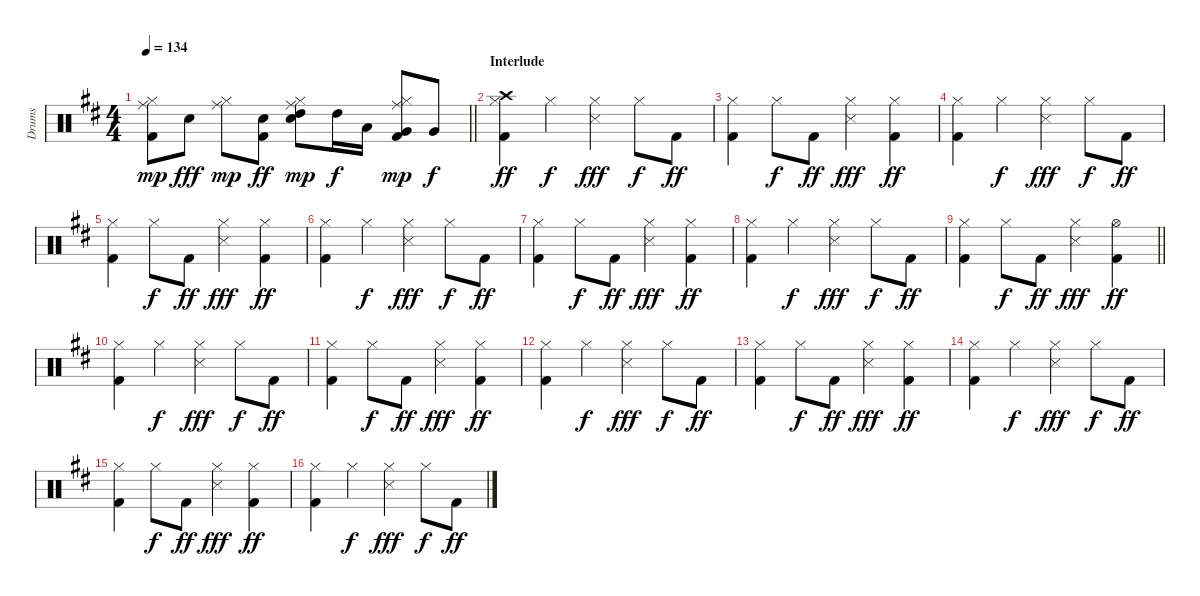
\track ("Drums" "Drums") {instrument percussion}
\staff {score}
\articulation defaults
\ts (4 4)
\tempo 134
\clef neutral
\barLineRight lightlight
\ks d
("Kick (hit) 2" "Hi-Hat (closed)" "Ride (middle)").8{dy mp} "Snare (hit) 2".8{dy fff} ("Hi-Hat (closed)" "Ride (middle)").8{dy mp} ("Kick (hit) 2" "Snare (hit) 2").8{dy ff} ("Snare (hit) 2" "Hi-Hat (closed)" "High Tom (hit)" "Ride (middle)").8{dy mp} "High Tom (hit)".16{dy f} "Low Tom (hit)".16 ("Kick (hit) 2" "Hi-Hat (closed)" "Very Low Tom (hit)" "Ride (middle)").8{dy mp} "Very Low Tom (hit)".8{dy f} |
\section ("" "Interlude")
("Kick (hit) 2" "Hi-Hat (closed)" "Crash high (hit)").4{dy ff} "Hi-Hat (closed)".4{dy f} ("Snare (side stick) 3" "Hi-Hat (closed)").4{dy fff} "Hi-Hat (closed)".8{dy f} "Kick (hit) 2".8{dy ff} |
("Kick (hit) 2" "Hi-Hat (closed)").4 "Hi-Hat (closed)".8{dy f} "Kick (hit) 2".8{dy ff} ("Snare (side stick) 3" "Hi-Hat (closed)").4{dy fff} ("Kick (hit) 2" "Hi-Hat (closed)").4{dy ff} |
("Kick (hit) 2" "Hi-Hat (closed)").4 "Hi-Hat (closed)".4{dy f} ("Snare (side stick) 3" "Hi-Hat (closed)").4{dy fff} "Hi-Hat (closed)".8{dy f} "Kick (hit) 2".8{dy ff} |
("Kick (hit) 2" "Hi-Hat (closed)").4 "Hi-Hat (closed)".8{dy f} "Kick (hit) 2".8{dy ff} ("Snare (side stick) 3" "Hi-Hat (closed)").4{dy fff} ("Kick (hit) 2" "Hi-Hat (closed)").4{dy ff} |
("Kick (hit) 2" "Hi-Hat (closed)").4 "Hi-Hat (closed)".4{dy f} ("Snare (side stick) 3" "Hi-Hat (closed)").4{dy fff} "Hi-Hat (closed)".8{dy f} "Kick (hit) 2".8{dy ff} |
("Kick (hit) 2" "Hi-Hat (closed)").4 "Hi-Hat (closed)".8{dy f} "Kick (hit) 2".8{dy ff} ("Snare (side stick) 3" "Hi-Hat (closed)").4{dy fff} ("Kick (hit) 2" "Hi-Hat (closed)").4{dy ff} |
("Kick (hit) 2" "Hi-Hat (closed)").4 "Hi-Hat (closed)".4{dy f} ("Snare (side stick) 3" "Hi-Hat (closed)").4{dy fff} "Hi-Hat (closed)".8{dy f} "Kick (hit) 2".8{dy ff} |
\barLineRight lightlight
("Kick (hit) 2" "Hi-Hat (closed)").4 "Hi-Hat (closed)".8{dy f} "Kick (hit) 2".8{dy ff} ("Snare (side stick) 3" "Hi-Hat (closed)").4{dy fff} ("Kick (hit) 2" "Hi-Hat (open)").4{dy ff} |
("Kick (hit) 2" "Hi-Hat (closed)").4 "Hi-Hat (closed)".4{dy f} ("Snare (side stick) 3" "Hi-Hat (closed)").4{dy fff} "Hi-Hat (closed)".8{dy f} "Kick (hit) 2".8{dy ff} |
("Kick (hit) 2" "Hi-Hat (closed)").4 "Hi-Hat (closed)".8{dy f} "Kick (hit) 2".8{dy ff} ("Snare (side stick) 3" "Hi-Hat (closed)").4{dy fff} ("Kick (hit) 2" "Hi-Hat (closed)").4{dy ff} |
("Kick (hit) 2" "Hi-Hat (closed)").4 "Hi-Hat (closed)".4{dy f} ("Snare (side stick) 3" "Hi-Hat (closed)").4{dy fff} "Hi-Hat (closed)".8{dy f} "Kick (hit) 2".8{dy ff} |
("Kick (hit) 2" "Hi-Hat (closed)").4 "Hi-Hat (closed)".8{dy f} "Kick (hit) 2".8{dy ff} ("Snare (side stick) 3" "Hi-Hat (closed)").4{dy fff} ("Kick (hit) 2" "Hi-Hat (closed)").4{dy ff} |
("Kick (hit) 2" "Hi-Hat (closed)").4 "Hi-Hat (closed)".4{dy f} ("Snare (side stick) 3" "Hi-Hat (closed)").4{dy fff} "Hi-Hat (closed)".8{dy f} "Kick (hit) 2".8{dy ff} |
("Kick (hit) 2" "Hi-Hat (closed)").4 "Hi-Hat (closed)".8{dy f} "Kick (hit) 2".8{dy ff} ("Snare (side stick) 3" "Hi-Hat (closed)").4{dy fff} ("Kick (hit) 2" "Hi-Hat (closed)").4{dy ff} |
("Kick (hit) 2" "Hi-Hat (closed)").4 "Hi-Hat (closed)".4{dy f} ("Snare (side stick) 3" "Hi-Hat (closed)").4{dy fff} "Hi-Hat (closed)".8{dy f} "Kick (hit) 2".8{dy ff}
